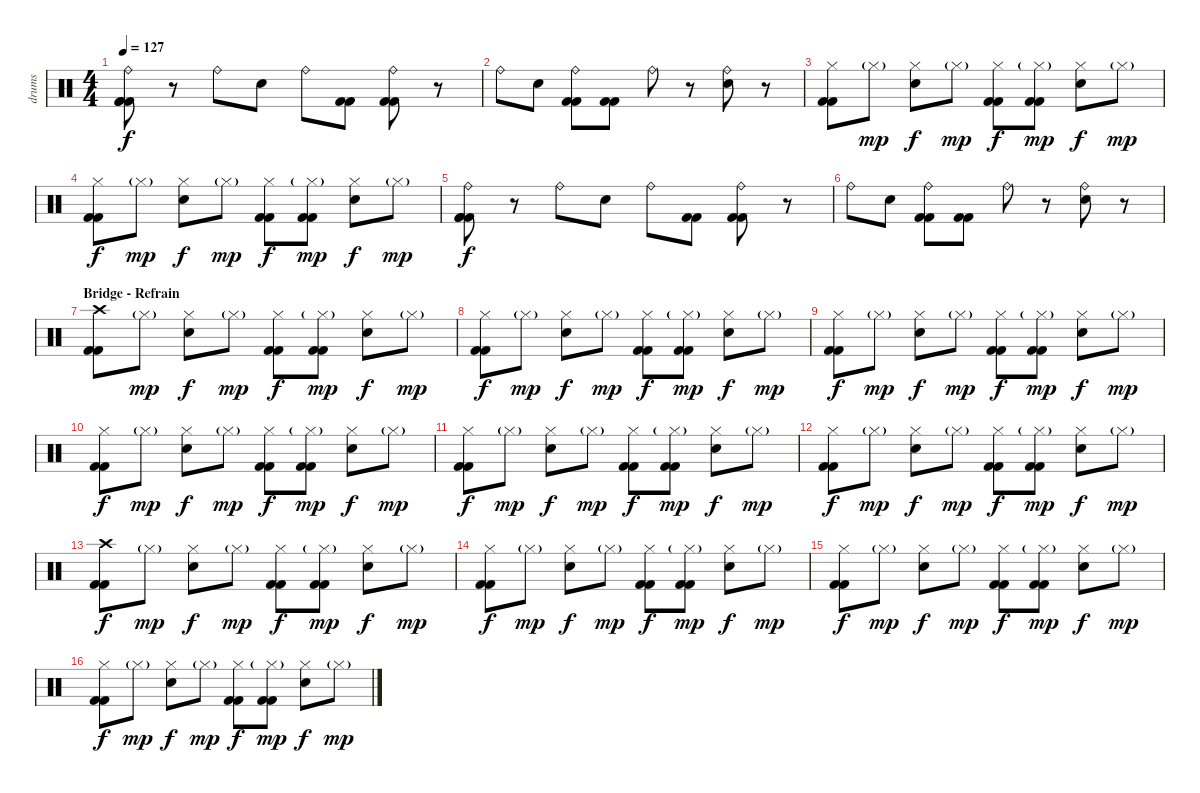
\track ("drums" "drums") {instrument percussion}
\staff {score}
\articulation defaults
\ts (4 4)
\tempo 127
\clef neutral
\ks c
("Ride (bell)" "Kick (hit) 2" "Kick (hit) 2" "Kick (hit) 2").8{dy f} r.8 "Ride (bell)".8 "Electric Snare (hit)".8 "Ride (bell)".8 ("Kick (hit) 2" "Kick (hit) 2").8 ("Ride (bell)" "Kick (hit) 2" "Kick (hit) 2").8 r.8 |
"Ride (bell)".8 "Electric Snare (hit)".8 ("Ride (bell)" "Kick (hit) 2" "Kick (hit) 2").8 ("Kick (hit) 2" "Kick (hit) 2").8 "Ride (bell)".8 r.8 ("Ride (bell)" "Electric Snare (hit)").8 r.8 |
("Hi-Hat (closed)" "Kick (hit) 2" "Kick (hit) 2").8 "Hi-Hat (closed)"{g}.8{dy mp} ("Hi-Hat (closed)" "Electric Snare (hit)").8{dy f} "Hi-Hat (closed)"{g}.8{dy mp} ("Hi-Hat (closed)" "Kick (hit) 2" "Kick (hit) 2").8{dy f} ("Hi-Hat (closed)"{g} "Kick (hit) 2" "Kick (hit) 2").8{dy mp} ("Hi-Hat (closed)" "Electric Snare (hit)").8{dy f} "Hi-Hat (closed)"{g}.8{dy mp} |
("Hi-Hat (closed)" "Kick (hit) 2" "Kick (hit) 2").8{dy f} "Hi-Hat (closed)"{g}.8{dy mp} ("Hi-Hat (closed)" "Electric Snare (hit)").8{dy f} "Hi-Hat (closed)"{g}.8{dy mp} ("Hi-Hat (closed)" "Kick (hit) 2" "Kick (hit) 2").8{dy f} ("Hi-Hat (closed)"{g} "Kick (hit) 2" "Kick (hit) 2").8{dy mp} ("Hi-Hat (closed)" "Electric Snare (hit)").8{dy f} "Hi-Hat (closed)"{g}.8{dy mp} |
("Ride (bell)" "Kick (hit) 2" "Kick (hit) 2" "Kick (hit) 2").8{dy f} r.8 "Ride (bell)".8 "Electric Snare (hit)".8 "Ride (bell)".8 ("Kick (hit) 2" "Kick (hit) 2").8 ("Ride (bell)" "Kick (hit) 2" "Kick (hit) 2").8 r.8 |
"Ride (bell)".8 "Electric Snare (hit)".8 ("Ride (bell)" "Kick (hit) 2" "Kick (hit) 2").8 ("Kick (hit) 2" "Kick (hit) 2").8 "Ride (bell)".8 r.8 ("Ride (bell)" "Electric Snare (hit)").8 r.8 |
\section ("" "Bridge - Refrain")
("Crash high (hit)" "Kick (hit) 2" "Kick (hit) 2").8 "Hi-Hat (closed)"{g}.8{dy mp} ("Hi-Hat (closed)" "Electric Snare (hit)").8{dy f} "Hi-Hat (closed)"{g}.8{dy mp} ("Hi-Hat (closed)" "Kick (hit) 2" "Kick (hit) 2").8{dy f} ("Hi-Hat (closed)"{g} "Kick (hit) 2" "Kick (hit) 2").8{dy mp} ("Hi-Hat (closed)" "Electric Snare (hit)").8{dy f} "Hi-Hat (closed)"{g}.8{dy mp} |
("Hi-Hat (closed)" "Kick (hit) 2" "Kick (hit) 2").8{dy f} "Hi-Hat (closed)"{g}.8{dy mp} ("Hi-Hat (closed)" "Electric Snare (hit)").8{dy f} "Hi-Hat (closed)"{g}.8{dy mp} ("Hi-Hat (closed)" "Kick (hit) 2" "Kick (hit) 2").8{dy f} ("Hi-Hat (closed)"{g} "Kick (hit) 2" "Kick (hit) 2").8{dy mp} ("Hi-Hat (closed)" "Electric Snare (hit)").8{dy f} "Hi-Hat (closed)"{g}.8{dy mp} |
("Hi-Hat (closed)" "Kick (hit) 2" "Kick (hit) 2").8{dy f} "Hi-Hat (closed)"{g}.8{dy mp} ("Hi-Hat (closed)" "Electric Snare (hit)").8{dy f} "Hi-Hat (closed)"{g}.8{dy mp} ("Hi-Hat (closed)" "Kick (hit) 2" "Kick (hit) 2").8{dy f} ("Hi-Hat (closed)"{g} "Kick (hit) 2" "Kick (hit) 2").8{dy mp} ("Hi-Hat (closed)" "Electric Snare (hit)").8{dy f} "Hi-Hat (closed)"{g}.8{dy mp} |
("Hi-Hat (closed)" "Kick (hit) 2" "Kick (hit) 2").8{dy f} "Hi-Hat (closed)"{g}.8{dy mp} ("Hi-Hat (closed)" "Electric Snare (hit)").8{dy f} "Hi-Hat (closed)"{g}.8{dy mp} ("Hi-Hat (closed)" "Kick (hit) 2" "Kick (hit) 2").8{dy f} ("Hi-Hat (closed)"{g} "Kick (hit) 2" "Kick (hit) 2").8{dy mp} ("Hi-Hat (closed)" "Electric Snare (hit)").8{dy f} "Hi-Hat (closed)"{g}.8{dy mp} |
("Hi-Hat (closed)" "Kick (hit) 2" "Kick (hit) 2").8{dy f} "Hi-Hat (closed)"{g}.8{dy mp} ("Hi-Hat (closed)" "Electric Snare (hit)").8{dy f} "Hi-Hat (closed)"{g}.8{dy mp} ("Hi-Hat (closed)" "Kick (hit) 2" "Kick (hit) 2").8{dy f} ("Hi-Hat (closed)"{g} "Kick (hit) 2" "Kick (hit) 2").8{dy mp} ("Hi-Hat (closed)" "Electric Snare (hit)").8{dy f} "Hi-Hat (closed)"{g}.8{dy mp} |
("Hi-Hat (closed)" "Kick (hit) 2" "Kick (hit) 2").8{dy f} "Hi-Hat (closed)"{g}.8{dy mp} ("Hi-Hat (closed)" "Electric Snare (hit)").8{dy f} "Hi-Hat (closed)"{g}.8{dy mp} ("Hi-Hat (closed)" "Kick (hit) 2" "Kick (hit) 2").8{dy f} ("Hi-Hat (closed)"{g} "Kick (hit) 2" "Kick (hit) 2").8{dy mp} ("Hi-Hat (closed)" "Electric Snare (hit)").8{dy f} "Hi-Hat (closed)"{g}.8{dy mp} |
("Crash high (hit)" "Kick (hit) 2" "Kick (hit) 2").8{dy f} "Hi-Hat (closed)"{g}.8{dy mp} ("Hi-Hat (closed)" "Electric Snare (hit)").8{dy f} "Hi-Hat (closed)"{g}.8{dy mp} ("Hi-Hat (closed)" "Kick (hit) 2" "Kick (hit) 2").8{dy f} ("Hi-Hat (closed)"{g} "Kick (hit) 2" "Kick (hit) 2").8{dy mp} ("Hi-Hat (closed)" "Electric Snare (hit)").8{dy f} "Hi-Hat (closed)"{g}.8{dy mp} |
("Hi-Hat (closed)" "Kick (hit) 2" "Kick (hit) 2").8{dy f} "Hi-Hat (closed)"{g}.8{dy mp} ("Hi-Hat (closed)" "Electric Snare (hit)").8{dy f} "Hi-Hat (closed)"{g}.8{dy mp} ("Hi-Hat (closed)" "Kick (hit) 2" "Kick (hit) 2").8{dy f} ("Hi-Hat (closed)"{g} "Kick (hit) 2" "Kick (hit) 2").8{dy mp} ("Hi-Hat (closed)" "Electric Snare (hit)").8{dy f} "Hi-Hat (closed)"{g}.8{dy mp} |
("Hi-Hat (closed)" "Kick (hit) 2" "Kick (hit) 2").8{dy f} "Hi-Hat (closed)"{g}.8{dy mp} ("Hi-Hat (closed)" "Electric Snare (hit)").8{dy f} "Hi-Hat (closed)"{g}.8{dy mp} ("Hi-Hat (closed)" "Kick (hit) 2" "Kick (hit) 2").8{dy f} ("Hi-Hat (closed)"{g} "Kick (hit) 2" "Kick (hit) 2").8{dy mp} ("Hi-Hat (closed)" "Electric Snare (hit)").8{dy f} "Hi-Hat (closed)"{g}.8{dy mp} |
("Hi-Hat (closed)" "Kick (hit) 2" "Kick (hit) 2").8{dy f} "Hi-Hat (closed)"{g}.8{dy mp} ("Hi-Hat (closed)" "Electric Snare (hit)").8{dy f} "Hi-Hat (closed)"{g}.8{dy mp} ("Hi-Hat (closed)" "Kick (hit) 2" "Kick (hit) 2").8{dy f} ("Hi-Hat (closed)"{g} "Kick (hit) 2" "Kick (hit) 2").8{dy mp} ("Hi-Hat (closed)" "Electric Snare (hit)").8{dy f} "Hi-Hat (closed)"{g}.8{dy mp}
